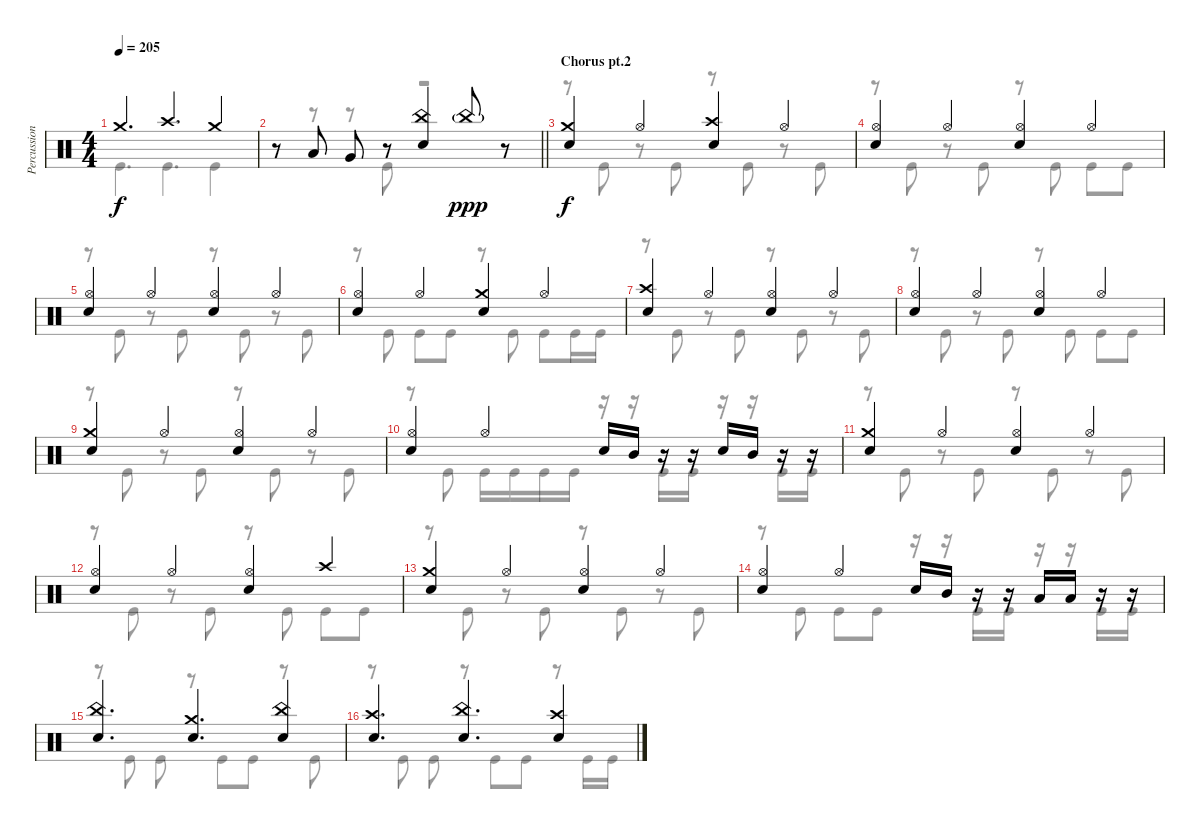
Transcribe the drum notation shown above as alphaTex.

\track ("Percussion" "Percussion") {instrument percussion}
\staff {score}
\articulation defaults
\voice
\ts (4 4)
\section ("" "")
\tempo 205
\clef neutral
\ks c "Crash medium (hit)".4{d dy f} "Crash high (hit)".4{d} "Crash medium (hit)".4
|
\barLineRight lightlight
r.8 "Low Tom (hit)".8 "Very Low Tom (hit)".8 r.8 ("China (hit)" "Electric Snare (hit)").4 "China (hit)"{g}.8{dy ppp} r.8 |
\section ("" "Chorus pt.2")
("Crash medium (hit)" "Electric Snare (hit)").4{dy f} "Hi-Hat (open)".4 ("Crash high (hit)" "Electric Snare (hit)").4 "Hi-Hat (open)".4 |
("Hi-Hat (open)" "Electric Snare (hit)").4 "Hi-Hat (open)".4 ("Hi-Hat (open)" "Electric Snare (hit)").4 "Hi-Hat (open)".4 |
("Hi-Hat (open)" "Electric Snare (hit)").4 "Hi-Hat (open)".4 ("Hi-Hat (open)" "Electric Snare (hit)").4 "Hi-Hat (open)".4 |
("Hi-Hat (open)" "Electric Snare (hit)").4 "Hi-Hat (open)".4 ("Crash medium (hit)" "Electric Snare (hit)").4 "Hi-Hat (open)".4 |
("Crash high (hit)" "Electric Snare (hit)").4 "Hi-Hat (open)".4 ("Hi-Hat (open)" "Electric Snare (hit)").4 "Hi-Hat (open)".4 |
("Hi-Hat (open)" "Electric Snare (hit)").4 "Hi-Hat (open)".4 ("Hi-Hat (open)" "Electric Snare (hit)").4 "Hi-Hat (open)".4 |
("Crash medium (hit)" "Electric Snare (hit)").4 "Hi-Hat (open)".4 ("Hi-Hat (open)" "Electric Snare (hit)").4 "Hi-Hat (open)".4 |
("Hi-Hat (open)" "Electric Snare (hit)").4 "Hi-Hat (open)".4 "Electric Snare (hit)".16 "Mid Tom (hit)".16 r.16 r.16 "Electric Snare (hit)".16 "Mid Tom (hit)".16 r.16 r.16 |
("Crash medium (hit)" "Electric Snare (hit)").4 "Hi-Hat (open)".4 ("Hi-Hat (open)" "Electric Snare (hit)").4 "Hi-Hat (open)".4 |
("Hi-Hat (open)" "Electric Snare (hit)").4 "Hi-Hat (open)".4 ("Hi-Hat (open)" "Electric Snare (hit)").4 "Crash high (hit)".4 |
("Crash medium (hit)" "Electric Snare (hit)").4 "Hi-Hat (open)".4 ("Hi-Hat (open)" "Electric Snare (hit)").4 "Hi-Hat (open)".4 |
("Hi-Hat (open)" "Electric Snare (hit)").4 "Hi-Hat (open)".4 "Electric Snare (hit)".16 "Mid Tom (hit)".16 r.16 r.16 "Low Tom (hit)".16 "Low Tom (hit)".16 r.16 r.16 |
("China (hit)" "Electric Snare (hit)").4{d} ("Crash medium (hit)" "Electric Snare (hit)").4{d} ("China (hit)" "Electric Snare (hit)").4 |
("Crash high (hit)" "Electric Snare (hit)").4{d} ("China (hit)" "Electric Snare (hit)").4{d} ("Crash high (hit)" "Electric Snare (hit)").4
\voice
\clef neutral
\ottava regular
\simile none
\ks c "Kick (hit)".4{d dy f} "Kick (hit)".4{d} "Kick (hit)".4
|
\barLineRight lightlight
r.8 r.8 r.8 "Kick (hit)".8 r.2 |
r.8 "Kick (hit)".8 r.8 "Kick (hit)".8 r.8 "Kick (hit)".8 r.8 "Kick (hit)".8 |
r.8 "Kick (hit)".8 r.8 "Kick (hit)".8 r.8 "Kick (hit)".8 "Kick (hit)".8 "Kick (hit)".8 |
r.8 "Kick (hit)".8 r.8 "Kick (hit)".8 r.8 "Kick (hit)".8 r.8 "Kick (hit)".8 |
r.8 "Kick (hit)".8 "Kick (hit)".8 "Kick (hit)".8 r.8 "Kick (hit)".8 "Kick (hit)".8 "Kick (hit)".16 "Kick (hit)".16 |
r.8 "Kick (hit)".8 r.8 "Kick (hit)".8 r.8 "Kick (hit)".8 r.8 "Kick (hit)".8 |
r.8 "Kick (hit)".8 r.8 "Kick (hit)".8 r.8 "Kick (hit)".8 "Kick (hit)".8 "Kick (hit)".8 |
r.8 "Kick (hit)".8 r.8 "Kick (hit)".8 r.8 "Kick (hit)".8 r.8 "Kick (hit)".8 |
r.8 "Kick (hit)".8 "Kick (hit)".16 "Kick (hit)".16 "Kick (hit)".16 "Kick (hit)".16 r.16 r.16 "Kick (hit)".16 "Kick (hit)".16 r.16 r.16 "Kick (hit)".16 "Kick (hit)".16 |
r.8 "Kick (hit)".8 r.8 "Kick (hit)".8 r.8 "Kick (hit)".8 r.8 "Kick (hit)".8 |
r.8 "Kick (hit)".8 r.8 "Kick (hit)".8 r.8 "Kick (hit)".8 "Kick (hit)".8 "Kick (hit)".8 |
r.8 "Kick (hit)".8 r.8 "Kick (hit)".8 r.8 "Kick (hit)".8 r.8 "Kick (hit)".8 |
r.8 "Kick (hit)".8 "Kick (hit)".8 "Kick (hit)".8 r.16 r.16 "Kick (hit)".16 "Kick (hit)".16 r.16 r.16 "Kick (hit)".16 "Kick (hit)".16 |
r.8 "Kick (hit)".8 "Kick (hit)".8 r.8 "Kick (hit)".8 "Kick (hit)".8 r.8 "Kick (hit)".8 |
r.8 "Kick (hit)".8 "Kick (hit)".8 r.8 "Kick (hit)".8 "Kick (hit)".8 r.8 "Kick (hit)".16 "Kick (hit)".16
